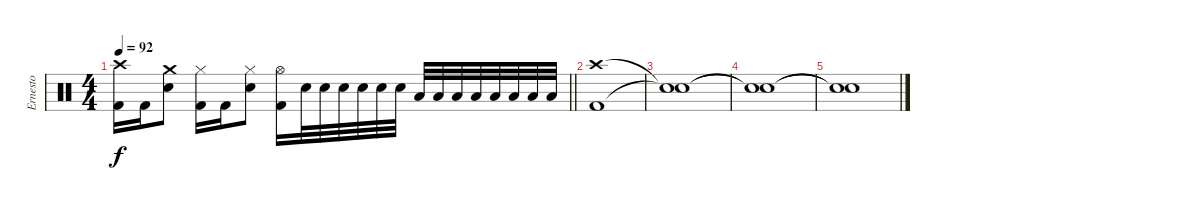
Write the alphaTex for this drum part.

\track ("Ernesto" "Ernesto") {instrument percussion}
\staff
\articulation defaults
\ts (4 4)
\tempo 92
\clef neutral
\barLineRight lightlight
\ks c
("Crash high (hit)" "Kick (hit) 2").16{dy f} "Kick (hit) 2".16 ("Crash medium (hit)" "Electric Snare (hit)").8 ("Hi-Hat (closed)" "Kick (hit) 2").16 "Kick (hit) 2".16 ("Hi-Hat (closed)" "Electric Snare (hit)").8 ("Hi-Hat (open)" "Kick (hit) 2").16 "Electric Snare (hit)".32 "Electric Snare (hit)".32 "Electric Snare (hit)".32 "Electric Snare (hit)".32 "Electric Snare (hit)".32 "Electric Snare (hit)".32 "Low Tom (hit)".32 "Low Tom (hit)".32 "Low Tom (hit)".32 "Low Tom (hit)".32 "Low Floor Tom (hit)".32 "Low Floor Tom (hit)".32 "Low Floor Tom (hit)".32 "Low Floor Tom (hit)".32 |
("Crash high (hit)" "Kick (hit) 2").1 |
("Snare (hit)"{t} "Snare (hit)"{t}).1 |
("Snare (hit)"{t} "Snare (hit)"{t}).1 |
("Snare (hit)"{t} "Snare (hit)"{t}).1
